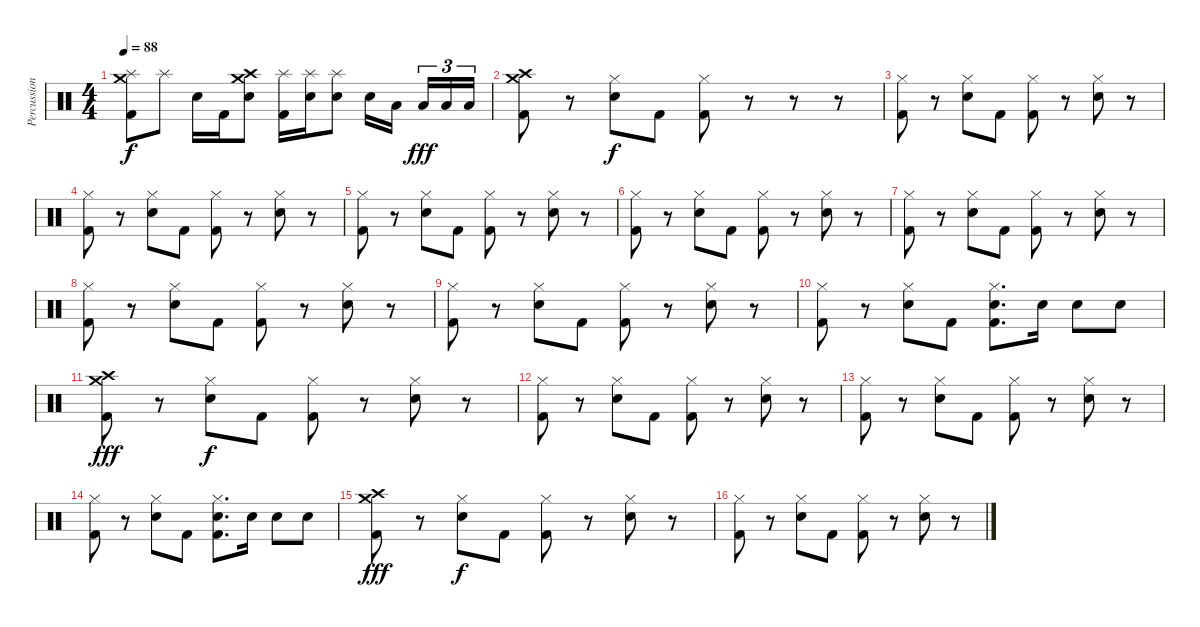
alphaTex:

\track ("Percussion" "Percussion") {instrument percussion}
\staff {score}
\articulation defaults
\ts (4 4)
\tempo 88
\clef neutral
\ks c
("Crash medium (hit)" "Splash (hit)" "Kick (hit) 2").8{dy f} "Splash (hit)".8 "Electric Snare (hit)".16 "Kick (hit) 2".16 ("Crash high (hit)" "Crash medium (hit)" "Electric Snare (hit)").8 ("Splash (hit)" "Kick (hit) 2").16 ("Splash (hit)" "Electric Snare (hit)").16 ("Splash (hit)" "Electric Snare (hit)").8 "Electric Snare (hit)".16 "Low Tom (hit)".16{beam splitsecondary} "Low Floor Tom (hit)".16{tu (3 2) dy fff} "Low Floor Tom (hit)".16{tu (3 2)} "Low Floor Tom (hit)".16{tu (3 2)} |
("Kick (hit) 2" "Crash medium (hit)" "Crash high (hit)").8 r.8 ("Snare (hit) 2" "Hi-Hat (closed)").8{dy f} "Kick (hit) 2".8 ("Kick (hit) 2" "Hi-Hat (closed)").8 r.8 r.8 r.8 |
("Kick (hit) 2" "Hi-Hat (closed)").8 r.8 ("Snare (hit) 2" "Hi-Hat (closed)").8 "Kick (hit) 2".8 ("Kick (hit) 2" "Hi-Hat (closed)").8 r.8 ("Snare (hit) 2" "Hi-Hat (closed)").8 r.8 |
("Kick (hit) 2" "Hi-Hat (closed)").8 r.8 ("Snare (hit) 2" "Hi-Hat (closed)").8 "Kick (hit) 2".8 ("Kick (hit) 2" "Hi-Hat (closed)").8 r.8 ("Snare (hit) 2" "Hi-Hat (closed)").8 r.8 |
("Kick (hit) 2" "Hi-Hat (closed)").8 r.8 ("Snare (hit) 2" "Hi-Hat (closed)").8 "Kick (hit) 2".8 ("Kick (hit) 2" "Hi-Hat (closed)").8 r.8 ("Snare (hit) 2" "Hi-Hat (closed)").8 r.8 |
("Kick (hit) 2" "Hi-Hat (closed)").8 r.8 ("Snare (hit) 2" "Hi-Hat (closed)").8 "Kick (hit) 2".8 ("Kick (hit) 2" "Hi-Hat (closed)").8 r.8 ("Snare (hit) 2" "Hi-Hat (closed)").8 r.8 |
("Kick (hit) 2" "Hi-Hat (closed)").8 r.8 ("Snare (hit) 2" "Hi-Hat (closed)").8 "Kick (hit) 2".8 ("Kick (hit) 2" "Hi-Hat (closed)").8 r.8 ("Snare (hit) 2" "Hi-Hat (closed)").8 r.8 |
("Kick (hit) 2" "Hi-Hat (closed)").8 r.8 ("Snare (hit) 2" "Hi-Hat (closed)").8 "Kick (hit) 2".8 ("Kick (hit) 2" "Hi-Hat (closed)").8 r.8 ("Snare (hit) 2" "Hi-Hat (closed)").8 r.8 |
("Kick (hit) 2" "Hi-Hat (closed)").8 r.8 ("Snare (hit) 2" "Hi-Hat (closed)").8 "Kick (hit) 2".8 ("Kick (hit) 2" "Hi-Hat (closed)").8 r.8 ("Snare (hit) 2" "Hi-Hat (closed)").8 r.8 |
("Kick (hit) 2" "Hi-Hat (closed)").8 r.8 ("Snare (hit) 2" "Hi-Hat (closed)").8 "Kick (hit) 2".8 ("Kick (hit) 2" "Snare (hit) 2" "Hi-Hat (closed)").8{d} "Snare (hit) 2".16 "Snare (hit) 2".8 "Snare (hit) 2".8 |
("Kick (hit) 2" "Crash medium (hit)" "Crash high (hit)").8{dy fff} r.8 ("Snare (hit) 2" "Hi-Hat (closed)").8{dy f} "Kick (hit) 2".8 ("Kick (hit) 2" "Hi-Hat (closed)").8 r.8 ("Snare (hit) 2" "Hi-Hat (closed)").8 r.8 |
("Kick (hit) 2" "Hi-Hat (closed)").8 r.8 ("Snare (hit) 2" "Hi-Hat (closed)").8 "Kick (hit) 2".8 ("Kick (hit) 2" "Hi-Hat (closed)").8 r.8 ("Snare (hit) 2" "Hi-Hat (closed)").8 r.8 |
("Kick (hit) 2" "Hi-Hat (closed)").8 r.8 ("Snare (hit) 2" "Hi-Hat (closed)").8 "Kick (hit) 2".8 ("Kick (hit) 2" "Hi-Hat (closed)").8 r.8 ("Snare (hit) 2" "Hi-Hat (closed)").8 r.8 |
("Kick (hit) 2" "Hi-Hat (closed)").8 r.8 ("Snare (hit) 2" "Hi-Hat (closed)").8 "Kick (hit) 2".8 ("Kick (hit) 2" "Snare (hit) 2" "Hi-Hat (closed)").8{d} "Snare (hit) 2".16 "Snare (hit) 2".8 "Snare (hit) 2".8 |
("Kick (hit) 2" "Crash medium (hit)" "Crash high (hit)").8{dy fff} r.8 ("Snare (hit) 2" "Hi-Hat (closed)").8{dy f} "Kick (hit) 2".8 ("Kick (hit) 2" "Hi-Hat (closed)").8 r.8 ("Snare (hit) 2" "Hi-Hat (closed)").8 r.8 |
("Kick (hit) 2" "Hi-Hat (closed)").8 r.8 ("Snare (hit) 2" "Hi-Hat (closed)").8 "Kick (hit) 2".8 ("Kick (hit) 2" "Hi-Hat (closed)").8 r.8 ("Snare (hit) 2" "Hi-Hat (closed)").8 r.8
